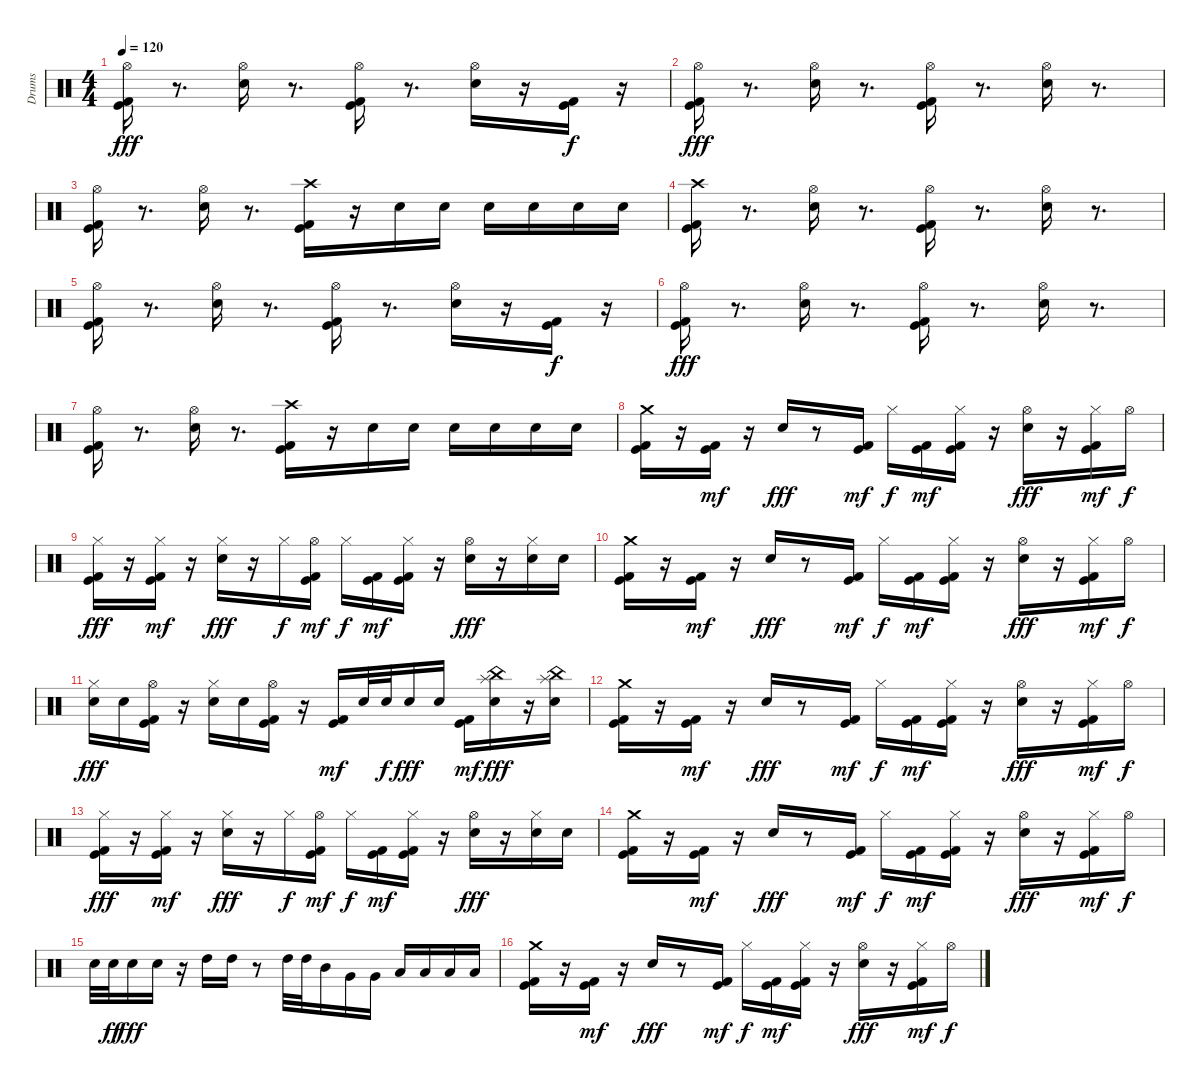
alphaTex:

\track ("Drums" "Drums") {instrument percussion}
\staff {score}
\articulation defaults
\ts (4 4)
\tempo 120
\clef neutral
\ks c
("Kick (hit)" "Kick (hit) 2" "Hi-Hat (open)").16{dy fff} r.8{d} ("Electric Snare (hit)" "Hi-Hat (open)").16 r.8{d} ("Kick (hit)" "Kick (hit) 2" "Hi-Hat (open)").16 r.8{d} ("Electric Snare (hit)" "Hi-Hat (open)").16 r.16 ("Kick (hit)" "Kick (hit) 2").16{dy f} r.16 |
("Kick (hit)" "Kick (hit) 2" "Hi-Hat (open)").16{dy fff} r.8{d} ("Electric Snare (hit)" "Hi-Hat (open)").16 r.8{d} ("Kick (hit)" "Kick (hit) 2" "Hi-Hat (open)").16 r.8{d} ("Electric Snare (hit)" "Hi-Hat (open)").16 r.8{d} |
("Kick (hit)" "Kick (hit) 2" "Hi-Hat (open)").16 r.8{d} ("Electric Snare (hit)" "Hi-Hat (open)").16 r.8{d} ("Kick (hit)" "Kick (hit) 2" "Crash high (hit)").16 r.16 "Electric Snare (hit)".16 "Electric Snare (hit)".16 "Electric Snare (hit)".16 "Electric Snare (hit)".16 "Electric Snare (hit)".16 "Electric Snare (hit)".16 |
("Kick (hit)" "Kick (hit) 2" "Crash high (hit)").16 r.8{d} ("Electric Snare (hit)" "Hi-Hat (open)").16 r.8{d} ("Kick (hit)" "Kick (hit) 2" "Hi-Hat (open)").16 r.8{d} ("Electric Snare (hit)" "Hi-Hat (open)").16 r.8{d} |
("Kick (hit)" "Kick (hit) 2" "Hi-Hat (open)").16 r.8{d} ("Electric Snare (hit)" "Hi-Hat (open)").16 r.8{d} ("Kick (hit)" "Kick (hit) 2" "Hi-Hat (open)").16 r.8{d} ("Electric Snare (hit)" "Hi-Hat (open)").16 r.16 ("Kick (hit)" "Kick (hit) 2").16{dy f} r.16 |
("Kick (hit)" "Kick (hit) 2" "Hi-Hat (open)").16{dy fff} r.8{d} ("Electric Snare (hit)" "Hi-Hat (open)").16 r.8{d} ("Kick (hit)" "Kick (hit) 2" "Hi-Hat (open)").16 r.8{d} ("Electric Snare (hit)" "Hi-Hat (open)").16 r.8{d} |
("Kick (hit)" "Kick (hit) 2" "Hi-Hat (open)").16 r.8{d} ("Electric Snare (hit)" "Hi-Hat (open)").16 r.8{d} ("Kick (hit)" "Kick (hit) 2" "Crash high (hit)").16 r.16 "Electric Snare (hit)".16 "Electric Snare (hit)".16 "Electric Snare (hit)".16 "Electric Snare (hit)".16 "Electric Snare (hit)".16 "Electric Snare (hit)".16 |
("Kick (hit)" "Kick (hit) 2" "Crash medium (hit)").16 r.16 ("Kick (hit)" "Kick (hit) 2").16{dy mf} r.16 "Electric Snare (hit)".16{dy fff} r.8 ("Kick (hit)" "Kick (hit) 2").16{dy mf} "Hi-Hat (closed)".16{dy f} ("Kick (hit)" "Kick (hit) 2").16{dy mf} ("Kick (hit)" "Kick (hit) 2" "Hi-Hat (closed)").16 r.16 ("Electric Snare (hit)" "Hi-Hat (open)").16{dy fff} r.16 ("Kick (hit)" "Kick (hit) 2" "Hi-Hat (closed)").16{dy mf} "Hi-Hat (open)".16{dy f} |
("Kick (hit)" "Kick (hit) 2" "Hi-Hat (closed)").16{dy fff} r.16 ("Kick (hit)" "Kick (hit) 2" "Hi-Hat (closed)").16{dy mf} r.16 ("Electric Snare (hit)" "Hi-Hat (closed)").16{dy fff} r.16 "Hi-Hat (closed)".16{dy f} ("Kick (hit)" "Kick (hit) 2" "Hi-Hat (open)").16{dy mf} "Hi-Hat (closed)".16{dy f} ("Kick (hit)" "Kick (hit) 2").16{dy mf} ("Kick (hit)" "Kick (hit) 2" "Hi-Hat (closed)").16 r.16 ("Electric Snare (hit)" "Hi-Hat (open)").16{dy fff} r.16 ("Electric Snare (hit)" "Hi-Hat (closed)").16 "Electric Snare (hit)".16 |
("Kick (hit)" "Kick (hit) 2" "Crash medium (hit)").16 r.16 ("Kick (hit)" "Kick (hit) 2").16{dy mf} r.16 "Electric Snare (hit)".16{dy fff} r.8 ("Kick (hit)" "Kick (hit) 2").16{dy mf} "Hi-Hat (closed)".16{dy f} ("Kick (hit)" "Kick (hit) 2").16{dy mf} ("Kick (hit)" "Kick (hit) 2" "Hi-Hat (closed)").16 r.16 ("Electric Snare (hit)" "Hi-Hat (open)").16{dy fff} r.16 ("Kick (hit)" "Kick (hit) 2" "Hi-Hat (closed)").16{dy mf} "Hi-Hat (open)".16{dy f} |
("Electric Snare (hit)" "Hi-Hat (closed)").16{dy fff} "Electric Snare (hit)".16 ("Kick (hit)" "Kick (hit) 2" "Hi-Hat (open)").16 r.16 ("Electric Snare (hit)" "Hi-Hat (closed)").16 "Electric Snare (hit)".16 ("Kick (hit)" "Kick (hit) 2" "Hi-Hat (open)").16 r.16 ("Kick (hit)" "Kick (hit) 2").16{dy mf} "Electric Snare (hit)".32 "Electric Snare (hit)".32{dy f} "Electric Snare (hit)".16{dy fff} "Electric Snare (hit)".16 ("Kick (hit)" "Kick (hit) 2").16{dy mf} ("Electric Snare (hit)" "China (hit)" "Splash (hit)").16{dy fff} r.16 ("Electric Snare (hit)" "China (hit)" "Splash (hit)").16 |
("Kick (hit)" "Kick (hit) 2" "Crash medium (hit)").16 r.16 ("Kick (hit)" "Kick (hit) 2").16{dy mf} r.16 "Electric Snare (hit)".16{dy fff} r.8 ("Kick (hit)" "Kick (hit) 2").16{dy mf} "Hi-Hat (closed)".16{dy f} ("Kick (hit)" "Kick (hit) 2").16{dy mf} ("Kick (hit)" "Kick (hit) 2" "Hi-Hat (closed)").16 r.16 ("Electric Snare (hit)" "Hi-Hat (open)").16{dy fff} r.16 ("Kick (hit)" "Kick (hit) 2" "Hi-Hat (closed)").16{dy mf} "Hi-Hat (open)".16{dy f} |
("Kick (hit)" "Kick (hit) 2" "Hi-Hat (closed)").16{dy fff} r.16 ("Kick (hit)" "Kick (hit) 2" "Hi-Hat (closed)").16{dy mf} r.16 ("Electric Snare (hit)" "Hi-Hat (closed)").16{dy fff} r.16 "Hi-Hat (closed)".16{dy f} ("Kick (hit)" "Kick (hit) 2" "Hi-Hat (open)").16{dy mf} "Hi-Hat (closed)".16{dy f} ("Kick (hit)" "Kick (hit) 2").16{dy mf} ("Kick (hit)" "Kick (hit) 2" "Hi-Hat (closed)").16 r.16 ("Electric Snare (hit)" "Hi-Hat (open)").16{dy fff} r.16 ("Electric Snare (hit)" "Hi-Hat (closed)").16 "Electric Snare (hit)".16 |
("Kick (hit)" "Kick (hit) 2" "Crash medium (hit)").16 r.16 ("Kick (hit)" "Kick (hit) 2").16{dy mf} r.16 "Electric Snare (hit)".16{dy fff} r.8 ("Kick (hit)" "Kick (hit) 2").16{dy mf} "Hi-Hat (closed)".16{dy f} ("Kick (hit)" "Kick (hit) 2").16{dy mf} ("Kick (hit)" "Kick (hit) 2" "Hi-Hat (closed)").16 r.16 ("Electric Snare (hit)" "Hi-Hat (open)").16{dy fff} r.16 ("Kick (hit)" "Kick (hit) 2" "Hi-Hat (closed)").16{dy mf} "Hi-Hat (open)".16{dy f} |
"Electric Snare (hit)".32 "Electric Snare (hit)".32{dy ff} "Electric Snare (hit)".16{dy fff} "Electric Snare (hit)".16 r.16 "High Tom (hit)".16 "High Tom (hit)".16 r.8 "High Tom (hit)".32 "High Tom (hit)".32 "Mid Tom (hit)".16 "Very Low Tom (hit)".16 "Very Low Tom (hit)".16 "Low Floor Tom (hit)".16 "Low Floor Tom (hit)".16 "Low Floor Tom (hit)".16 "Low Floor Tom (hit)".16 |
("Kick (hit)" "Kick (hit) 2" "Crash medium (hit)").16 r.16 ("Kick (hit)" "Kick (hit) 2").16{dy mf} r.16 "Electric Snare (hit)".16{dy fff} r.8 ("Kick (hit)" "Kick (hit) 2").16{dy mf} "Hi-Hat (closed)".16{dy f} ("Kick (hit)" "Kick (hit) 2").16{dy mf} ("Kick (hit)" "Kick (hit) 2" "Hi-Hat (closed)").16 r.16 ("Electric Snare (hit)" "Hi-Hat (open)").16{dy fff} r.16 ("Kick (hit)" "Kick (hit) 2" "Hi-Hat (closed)").16{dy mf} "Hi-Hat (open)".16{dy f}
